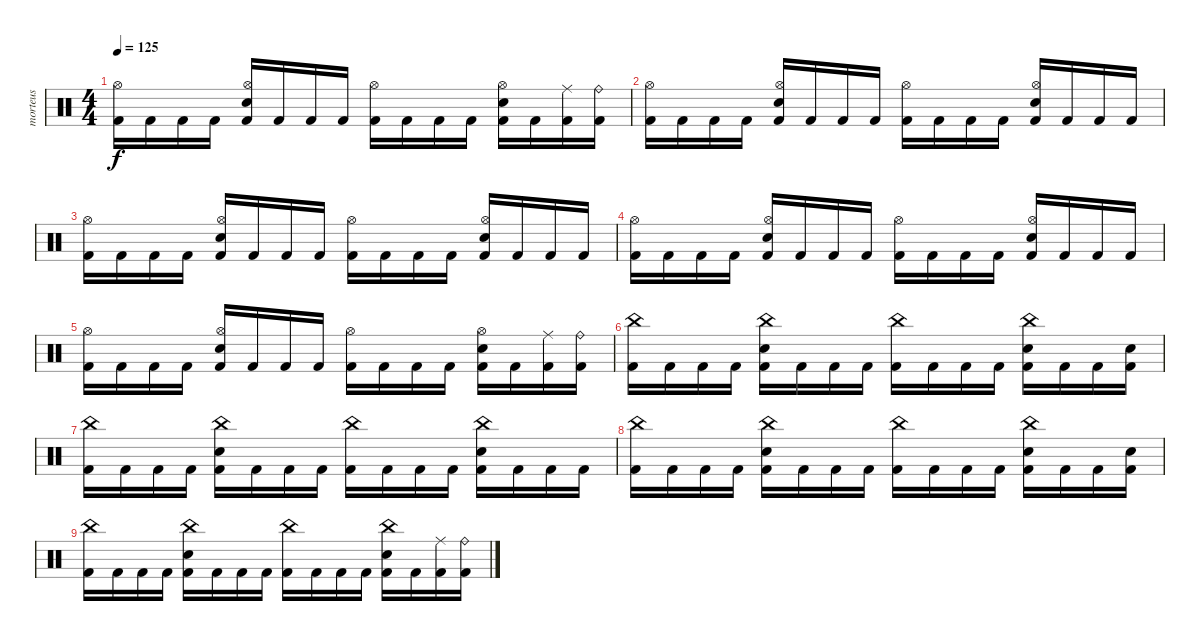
\track ("morteus" "morteus") {instrument percussion}
\staff {score}
\articulation defaults
\ts (4 4)
\tempo 125
\clef neutral
\ks c
("Kick (hit) 2" "Hi-Hat (open)").16{dy f} "Kick (hit) 2".16 "Kick (hit) 2".16 "Kick (hit) 2".16 ("Kick (hit) 2" "Electric Snare (hit)" "Hi-Hat (open)").16 "Kick (hit) 2".16 "Kick (hit) 2".16 "Kick (hit) 2".16 ("Kick (hit) 2" "Hi-Hat (open)").16 "Kick (hit) 2".16 "Kick (hit) 2".16 "Kick (hit) 2".16 ("Kick (hit) 2" "Electric Snare (hit)" "Hi-Hat (open)").16 "Kick (hit) 2".16 ("Kick (hit) 2" "Ride (middle)").16 ("Kick (hit) 2" "Ride (bell)").16 |
("Kick (hit) 2" "Hi-Hat (open)").16 "Kick (hit) 2".16 "Kick (hit) 2".16 "Kick (hit) 2".16 ("Kick (hit) 2" "Electric Snare (hit)" "Hi-Hat (open)").16 "Kick (hit) 2".16 "Kick (hit) 2".16 "Kick (hit) 2".16 ("Kick (hit) 2" "Hi-Hat (open)").16 "Kick (hit) 2".16 "Kick (hit) 2".16 "Kick (hit) 2".16 ("Kick (hit) 2" "Electric Snare (hit)" "Hi-Hat (open)").16 "Kick (hit) 2".16 "Kick (hit) 2".16 "Kick (hit) 2".16 |
("Kick (hit) 2" "Hi-Hat (open)").16 "Kick (hit) 2".16 "Kick (hit) 2".16 "Kick (hit) 2".16 ("Kick (hit) 2" "Electric Snare (hit)" "Hi-Hat (open)").16 "Kick (hit) 2".16 "Kick (hit) 2".16 "Kick (hit) 2".16 ("Kick (hit) 2" "Hi-Hat (open)").16 "Kick (hit) 2".16 "Kick (hit) 2".16 "Kick (hit) 2".16 ("Kick (hit) 2" "Electric Snare (hit)" "Hi-Hat (open)").16 "Kick (hit) 2".16 "Kick (hit) 2".16 "Kick (hit) 2".16 |
("Kick (hit) 2" "Hi-Hat (open)").16 "Kick (hit) 2".16 "Kick (hit) 2".16 "Kick (hit) 2".16 ("Kick (hit) 2" "Electric Snare (hit)" "Hi-Hat (open)").16 "Kick (hit) 2".16 "Kick (hit) 2".16 "Kick (hit) 2".16 ("Kick (hit) 2" "Hi-Hat (open)").16 "Kick (hit) 2".16 "Kick (hit) 2".16 "Kick (hit) 2".16 ("Kick (hit) 2" "Electric Snare (hit)" "Hi-Hat (open)").16 "Kick (hit) 2".16 "Kick (hit) 2".16 "Kick (hit) 2".16 |
("Kick (hit) 2" "Hi-Hat (open)").16 "Kick (hit) 2".16 "Kick (hit) 2".16 "Kick (hit) 2".16 ("Kick (hit) 2" "Electric Snare (hit)" "Hi-Hat (open)").16 "Kick (hit) 2".16 "Kick (hit) 2".16 "Kick (hit) 2".16 ("Kick (hit) 2" "Hi-Hat (open)").16 "Kick (hit) 2".16 "Kick (hit) 2".16 "Kick (hit) 2".16 ("Kick (hit) 2" "Electric Snare (hit)" "Hi-Hat (open)").16 "Kick (hit) 2".16 ("Kick (hit) 2" "Ride (middle)").16 ("Kick (hit) 2" "Ride (bell)").16 |
("Kick (hit) 2" "China (hit)").16 "Kick (hit) 2".16 "Kick (hit) 2".16 "Kick (hit) 2".16 ("Kick (hit) 2" "Electric Snare (hit)" "China (hit)").16 "Kick (hit) 2".16 "Kick (hit) 2".16 "Kick (hit) 2".16 ("Kick (hit) 2" "China (hit)").16 "Kick (hit) 2".16 "Kick (hit) 2".16 "Kick (hit) 2".16 ("Kick (hit) 2" "Electric Snare (hit)" "China (hit)").16 "Kick (hit) 2".16 "Kick (hit) 2".16 ("Kick (hit) 2" "Electric Snare (hit)").16 |
("Kick (hit) 2" "China (hit)").16 "Kick (hit) 2".16 "Kick (hit) 2".16 "Kick (hit) 2".16 ("Kick (hit) 2" "Electric Snare (hit)" "China (hit)").16 "Kick (hit) 2".16 "Kick (hit) 2".16 "Kick (hit) 2".16 ("Kick (hit) 2" "China (hit)").16 "Kick (hit) 2".16 "Kick (hit) 2".16 "Kick (hit) 2".16 ("Kick (hit) 2" "Electric Snare (hit)" "China (hit)").16 "Kick (hit) 2".16 "Kick (hit) 2".16 "Kick (hit) 2".16 |
("Kick (hit) 2" "China (hit)").16 "Kick (hit) 2".16 "Kick (hit) 2".16 "Kick (hit) 2".16 ("Kick (hit) 2" "Electric Snare (hit)" "China (hit)").16 "Kick (hit) 2".16 "Kick (hit) 2".16 "Kick (hit) 2".16 ("Kick (hit) 2" "China (hit)").16 "Kick (hit) 2".16 "Kick (hit) 2".16 "Kick (hit) 2".16 ("Kick (hit) 2" "Electric Snare (hit)" "China (hit)").16 "Kick (hit) 2".16 "Kick (hit) 2".16 ("Kick (hit) 2" "Electric Snare (hit)").16 |
("Kick (hit) 2" "China (hit)").16 "Kick (hit) 2".16 "Kick (hit) 2".16 "Kick (hit) 2".16 ("Kick (hit) 2" "Electric Snare (hit)" "China (hit)").16 "Kick (hit) 2".16 "Kick (hit) 2".16 "Kick (hit) 2".16 ("Kick (hit) 2" "China (hit)").16 "Kick (hit) 2".16 "Kick (hit) 2".16 "Kick (hit) 2".16 ("Kick (hit) 2" "Electric Snare (hit)" "China (hit)").16 "Kick (hit) 2".16 ("Kick (hit) 2" "Ride (middle)").16 ("Kick (hit) 2" "Ride (bell)").16
